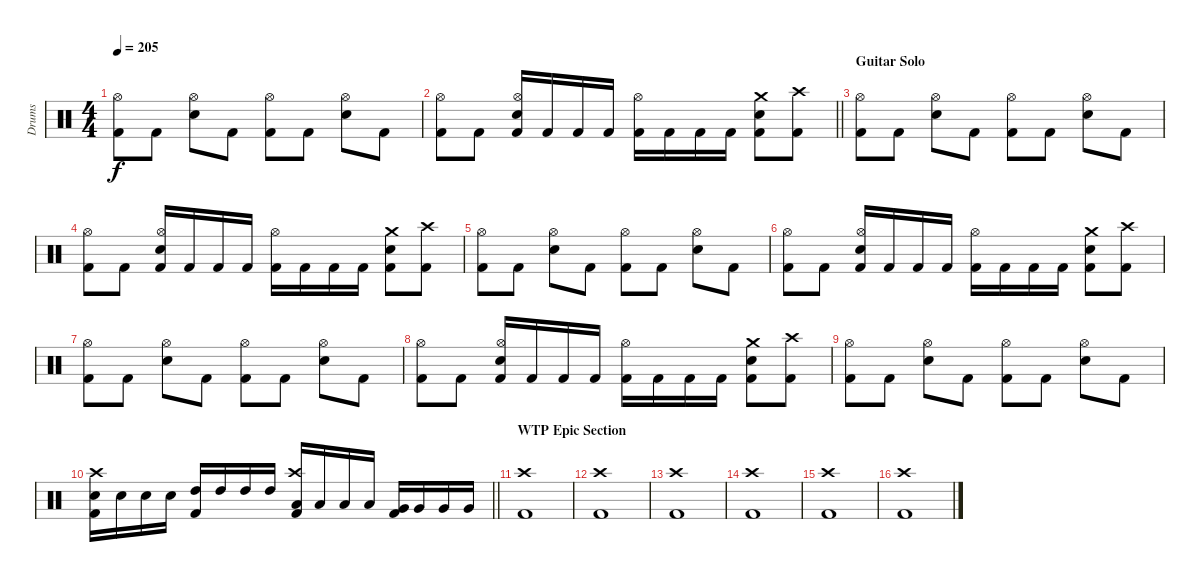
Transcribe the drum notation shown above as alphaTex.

\track ("Drums" "Drums") {instrument percussion}
\staff {score}
\articulation defaults
\ts (4 4)
\tempo 205
\clef neutral
\ks c
("Kick (hit) 2" "Hi-Hat (open)").8{dy f} "Kick (hit) 2".8 ("Snare (hit) 2" "Hi-Hat (open)").8 "Kick (hit) 2".8 ("Kick (hit) 2" "Hi-Hat (open)").8 "Kick (hit) 2".8 ("Snare (hit) 2" "Hi-Hat (open)").8 "Kick (hit) 2".8 |
\barLineRight lightlight
("Kick (hit) 2" "Hi-Hat (open)").8 "Kick (hit) 2".8 ("Kick (hit) 2" "Snare (hit) 2" "Hi-Hat (open)").16 "Kick (hit) 2".16 "Kick (hit) 2".16 "Kick (hit) 2".16 ("Kick (hit) 2" "Hi-Hat (open)").16 "Kick (hit) 2".16 "Kick (hit) 2".16 "Kick (hit) 2".16 ("Kick (hit) 2" "Snare (hit) 2" "Crash medium (hit)").8 ("Kick (hit) 2" "Crash high (hit)").8 |
\section ("" "Guitar Solo")
("Kick (hit) 2" "Hi-Hat (open)").8 "Kick (hit) 2".8 ("Snare (hit) 2" "Hi-Hat (open)").8 "Kick (hit) 2".8 ("Kick (hit) 2" "Hi-Hat (open)").8 "Kick (hit) 2".8 ("Snare (hit) 2" "Hi-Hat (open)").8 "Kick (hit) 2".8 |
("Kick (hit) 2" "Hi-Hat (open)").8 "Kick (hit) 2".8 ("Kick (hit) 2" "Snare (hit) 2" "Hi-Hat (open)").16 "Kick (hit) 2".16 "Kick (hit) 2".16 "Kick (hit) 2".16 ("Kick (hit) 2" "Hi-Hat (open)").16 "Kick (hit) 2".16 "Kick (hit) 2".16 "Kick (hit) 2".16 ("Kick (hit) 2" "Snare (hit) 2" "Crash medium (hit)").8 ("Kick (hit) 2" "Crash high (hit)").8 |
("Kick (hit) 2" "Hi-Hat (open)").8 "Kick (hit) 2".8 ("Snare (hit) 2" "Hi-Hat (open)").8 "Kick (hit) 2".8 ("Kick (hit) 2" "Hi-Hat (open)").8 "Kick (hit) 2".8 ("Snare (hit) 2" "Hi-Hat (open)").8 "Kick (hit) 2".8 |
("Kick (hit) 2" "Hi-Hat (open)").8 "Kick (hit) 2".8 ("Kick (hit) 2" "Snare (hit) 2" "Hi-Hat (open)").16 "Kick (hit) 2".16 "Kick (hit) 2".16 "Kick (hit) 2".16 ("Kick (hit) 2" "Hi-Hat (open)").16 "Kick (hit) 2".16 "Kick (hit) 2".16 "Kick (hit) 2".16 ("Kick (hit) 2" "Snare (hit) 2" "Crash medium (hit)").8 ("Kick (hit) 2" "Crash high (hit)").8 |
("Kick (hit) 2" "Hi-Hat (open)").8 "Kick (hit) 2".8 ("Snare (hit) 2" "Hi-Hat (open)").8 "Kick (hit) 2".8 ("Kick (hit) 2" "Hi-Hat (open)").8 "Kick (hit) 2".8 ("Snare (hit) 2" "Hi-Hat (open)").8 "Kick (hit) 2".8 |
("Kick (hit) 2" "Hi-Hat (open)").8 "Kick (hit) 2".8 ("Kick (hit) 2" "Snare (hit) 2" "Hi-Hat (open)").16 "Kick (hit) 2".16 "Kick (hit) 2".16 "Kick (hit) 2".16 ("Kick (hit) 2" "Hi-Hat (open)").16 "Kick (hit) 2".16 "Kick (hit) 2".16 "Kick (hit) 2".16 ("Kick (hit) 2" "Snare (hit) 2" "Crash medium (hit)").8 ("Kick (hit) 2" "Crash high (hit)").8 |
("Kick (hit) 2" "Hi-Hat (open)").8 "Kick (hit) 2".8 ("Snare (hit) 2" "Hi-Hat (open)").8 "Kick (hit) 2".8 ("Kick (hit) 2" "Hi-Hat (open)").8 "Kick (hit) 2".8 ("Snare (hit) 2" "Hi-Hat (open)").8 "Kick (hit) 2".8 |
\barLineRight lightlight
("Crash high (hit)" "Snare (hit) 2" "Kick (hit) 2").16 "Snare (hit) 2".16 "Snare (hit) 2".16 "Snare (hit) 2".16 ("High Tom (hit)" "Kick (hit) 2").16 "High Tom (hit)".16 "High Tom (hit)".16 "High Tom (hit)".16 ("Crash high (hit)" "Low Tom (hit)" "Kick (hit) 2").16 "Low Tom (hit)".16 "Low Tom (hit)".16 "Low Tom (hit)".16 ("Very Low Tom (hit)" "Kick (hit) 2").16 "Very Low Tom (hit)".16 "Very Low Tom (hit)".16 "Very Low Tom (hit)".16 |
\section ("" "WTP Epic Section")
("Crash high (hit)" "Kick (hit) 2").1 |
("Crash high (hit)" "Kick (hit) 2").1 |
("Crash high (hit)" "Kick (hit) 2").1 |
("Crash high (hit)" "Kick (hit) 2").1 |
("Crash high (hit)" "Kick (hit) 2").1 |
("Crash high (hit)" "Kick (hit) 2").1
